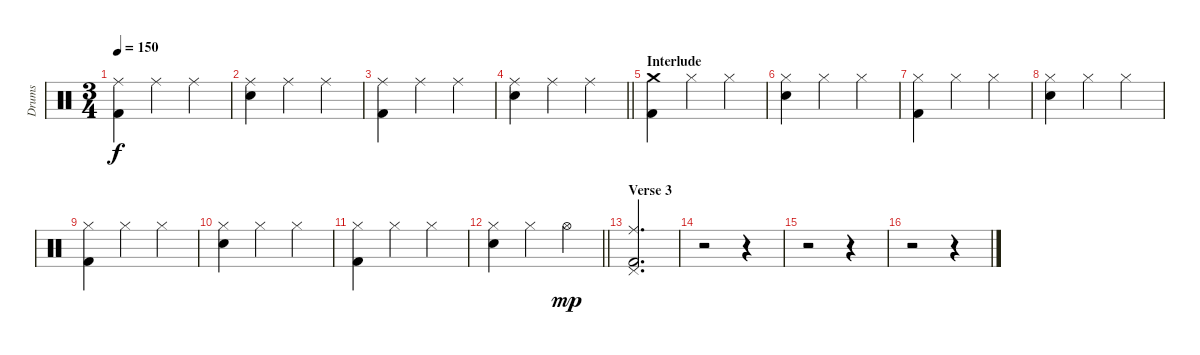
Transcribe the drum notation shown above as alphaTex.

\track ("Drums" "Drums") {instrument percussion}
\staff {score}
\articulation defaults
\ts (3 4)
\tempo 150
\clef neutral
\ks c
("Ride (middle)" "Kick (hit) 2").4{dy f} "Ride (middle)".4 "Ride (middle)".4 |
("Ride (middle)" "Electric Snare (hit)").4 "Ride (middle)".4 "Ride (middle)".4 |
("Ride (middle)" "Kick (hit) 2").4 "Ride (middle)".4 "Ride (middle)".4 |
\barLineRight lightlight
("Ride (middle)" "Electric Snare (hit)").4 "Ride (middle)".4 "Ride (middle)".4 |
\section ("" "Interlude")
("Crash medium (hit)" "Kick (hit) 2").4 "Hi-Hat (closed)".4 "Hi-Hat (closed)".4 |
("Hi-Hat (closed)" "Electric Snare (hit)").4 "Hi-Hat (closed)".4 "Hi-Hat (closed)".4 |
("Hi-Hat (closed)" "Kick (hit) 2").4 "Hi-Hat (closed)".4 "Hi-Hat (closed)".4 |
("Hi-Hat (closed)" "Electric Snare (hit)").4 "Hi-Hat (closed)".4 "Hi-Hat (closed)".4 |
("Hi-Hat (closed)" "Kick (hit) 2").4 "Hi-Hat (closed)".4 "Hi-Hat (closed)".4 |
("Hi-Hat (closed)" "Electric Snare (hit)").4 "Hi-Hat (closed)".4 "Hi-Hat (closed)".4 |
("Hi-Hat (closed)" "Kick (hit) 2").4 "Hi-Hat (closed)".4 "Hi-Hat (closed)".4 |
\barLineRight lightlight
("Hi-Hat (closed)" "Electric Snare (hit)").4 "Hi-Hat (closed)".4 "Hi-Hat (open)".4{dy mp} |
\section ("" "Verse 3")
("Ride (middle)" "Pedal Hi-Hat (hit)" "Kick (hit) 2").2{d} |
r.2 r.4 |
r.2 r.4 |
r.2 r.4
